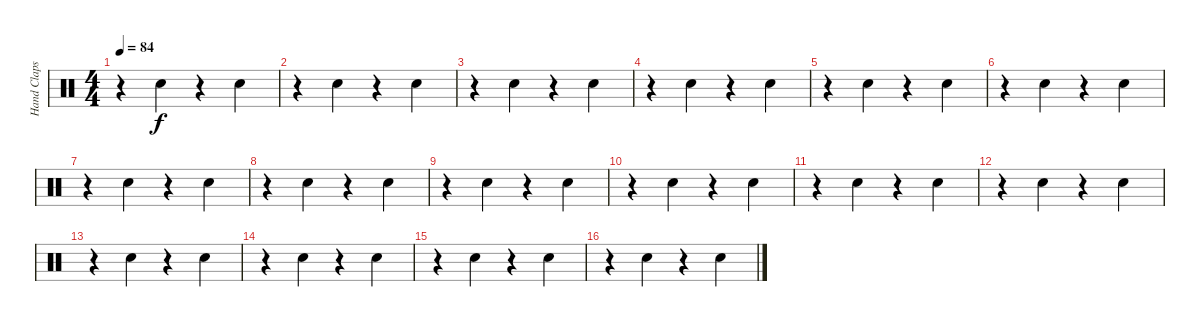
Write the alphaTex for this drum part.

\track ("Hand Claps" "Hand Claps") {instrument percussion}
\staff {score}
\articulation defaults
\ts (4 4)
\tempo 84
\clef neutral
\ks c
r.4{dy f} "Hand Clap (hit)".4 r.4 "Hand Clap (hit)".4 |
r.4 "Hand Clap (hit)".4 r.4 "Hand Clap (hit)".4 |
r.4 "Hand Clap (hit)".4 r.4 "Hand Clap (hit)".4 |
r.4 "Hand Clap (hit)".4 r.4 "Hand Clap (hit)".4 |
r.4 "Hand Clap (hit)".4 r.4 "Hand Clap (hit)".4 |
r.4 "Hand Clap (hit)".4 r.4 "Hand Clap (hit)".4 |
r.4 "Hand Clap (hit)".4 r.4 "Hand Clap (hit)".4 |
r.4 "Hand Clap (hit)".4 r.4 "Hand Clap (hit)".4 |
r.4 "Hand Clap (hit)".4 r.4 "Hand Clap (hit)".4 |
r.4 "Hand Clap (hit)".4 r.4 "Hand Clap (hit)".4 |
r.4 "Hand Clap (hit)".4 r.4 "Hand Clap (hit)".4 |
r.4 "Hand Clap (hit)".4 r.4 "Hand Clap (hit)".4 |
r.4 "Hand Clap (hit)".4 r.4 "Hand Clap (hit)".4 |
r.4 "Hand Clap (hit)".4 r.4 "Hand Clap (hit)".4 |
r.4 "Hand Clap (hit)".4 r.4 "Hand Clap (hit)".4 |
r.4 "Hand Clap (hit)".4 r.4 "Hand Clap (hit)".4
